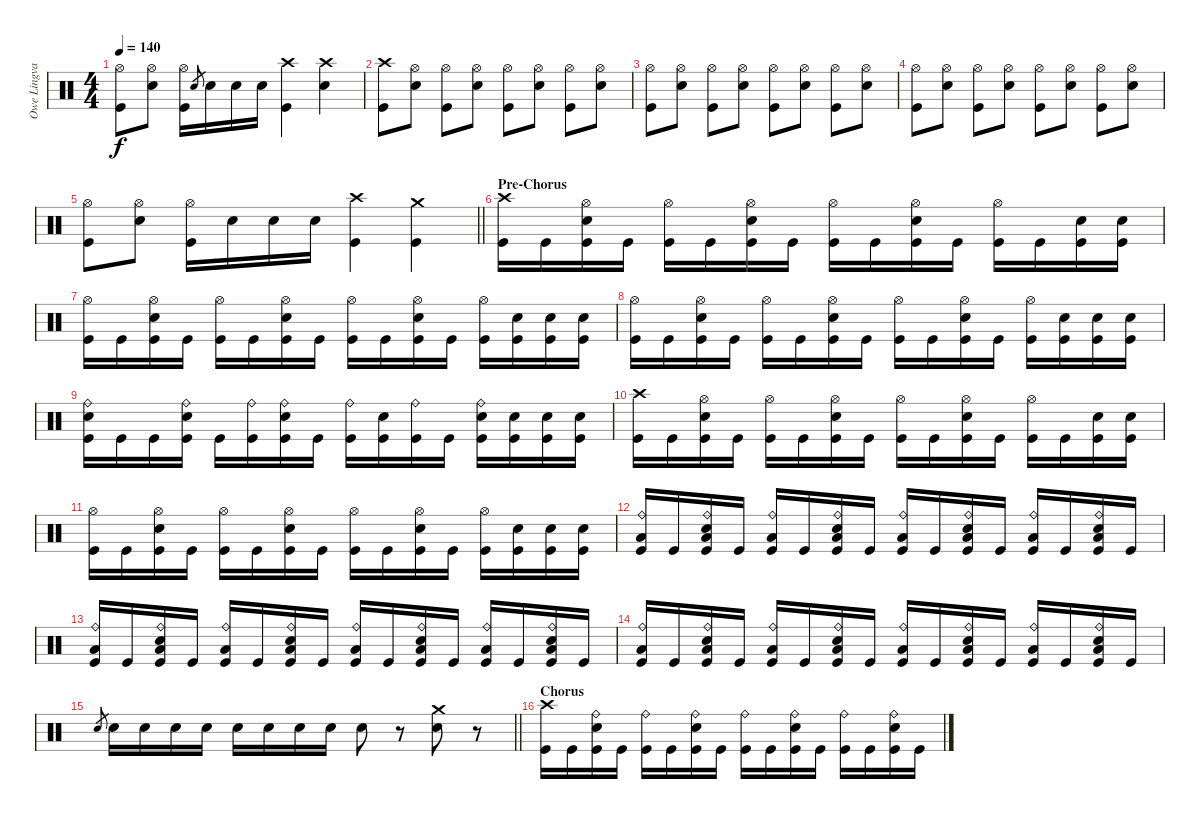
\track ("Owe Lingvall" "Owe Lingva") {instrument percussion}
\staff {score}
\articulation defaults
\ts (4 4)
\tempo 140
\clef neutral
\ks c
("Hi-Hat (open)" "Kick (hit)").8{dy f} ("Hi-Hat (open)" "Snare (hit) 2").8 ("Kick (hit)" "Hi-Hat (open)").16 "Snare (hit) 2".8{gr} "Snare (hit) 2".16 "Snare (hit) 2".16 "Snare (hit) 2".16 ("Crash high (hit)" "Kick (hit)").4 ("Crash high (hit)" "Snare (hit) 2").4 |
("Crash high (hit)" "Kick (hit)").8 ("Hi-Hat (open)" "Snare (hit) 2").8 ("Hi-Hat (open)" "Kick (hit)").8 ("Hi-Hat (open)" "Snare (hit) 2").8 ("Kick (hit)" "Hi-Hat (open)").8 ("Hi-Hat (open)" "Snare (hit) 2").8 ("Hi-Hat (open)" "Kick (hit)").8 ("Hi-Hat (open)" "Snare (hit) 2").8 |
("Hi-Hat (open)" "Kick (hit)").8 ("Hi-Hat (open)" "Snare (hit) 2").8 ("Hi-Hat (open)" "Kick (hit)").8 ("Hi-Hat (open)" "Snare (hit) 2").8 ("Kick (hit)" "Hi-Hat (open)").8 ("Hi-Hat (open)" "Snare (hit) 2").8 ("Hi-Hat (open)" "Kick (hit)").8 ("Hi-Hat (open)" "Snare (hit) 2").8 |
("Hi-Hat (open)" "Kick (hit)").8 ("Hi-Hat (open)" "Snare (hit) 2").8 ("Hi-Hat (open)" "Kick (hit)").8 ("Hi-Hat (open)" "Snare (hit) 2").8 ("Kick (hit)" "Hi-Hat (open)").8 ("Hi-Hat (open)" "Snare (hit) 2").8 ("Hi-Hat (open)" "Kick (hit)").8 ("Hi-Hat (open)" "Snare (hit) 2").8 |
\barLineRight lightlight
("Hi-Hat (open)" "Kick (hit)").8 ("Hi-Hat (open)" "Snare (hit) 2").8 ("Hi-Hat (open)" "Kick (hit)").16 "Snare (hit) 2".16 "Snare (hit) 2".16 "Snare (hit) 2".16 ("Crash high (hit)" "Kick (hit)").4 ("Crash medium (hit)" "Kick (hit)").4 |
\section ("" "Pre-Chorus")
("Kick (hit)" "Crash high (hit)").16 "Kick (hit)".16 ("Kick (hit)" "Hi-Hat (open)" "Snare (hit) 2").16 "Kick (hit)".16 ("Kick (hit)" "Hi-Hat (open)").16 "Kick (hit)".16 ("Kick (hit)" "Hi-Hat (open)" "Snare (hit) 2").16 "Kick (hit)".16 ("Kick (hit)" "Hi-Hat (open)").16 "Kick (hit)".16 ("Kick (hit)" "Hi-Hat (open)" "Snare (hit) 2").16 "Kick (hit)".16 ("Kick (hit)" "Hi-Hat (open)").16 "Kick (hit)".16 ("Kick (hit)" "Snare (hit) 2").16 ("Kick (hit)" "Snare (hit) 2").16 |
("Kick (hit)" "Hi-Hat (open)").16 "Kick (hit)".16 ("Kick (hit)" "Hi-Hat (open)" "Snare (hit) 2").16 "Kick (hit)".16 ("Kick (hit)" "Hi-Hat (open)").16 "Kick (hit)".16 ("Kick (hit)" "Hi-Hat (open)" "Snare (hit) 2").16 "Kick (hit)".16 ("Kick (hit)" "Hi-Hat (open)").16 "Kick (hit)".16 ("Kick (hit)" "Hi-Hat (open)" "Snare (hit) 2").16 "Kick (hit)".16 ("Kick (hit)" "Hi-Hat (open)").16 ("Kick (hit)" "Snare (hit) 2").16 ("Kick (hit)" "Snare (hit) 2").16 ("Kick (hit)" "Snare (hit) 2").16 |
("Kick (hit)" "Hi-Hat (open)").16 "Kick (hit)".16 ("Kick (hit)" "Hi-Hat (open)" "Snare (hit) 2").16 "Kick (hit)".16 ("Kick (hit)" "Hi-Hat (open)").16 "Kick (hit)".16 ("Kick (hit)" "Hi-Hat (open)" "Snare (hit) 2").16 "Kick (hit)".16 ("Kick (hit)" "Hi-Hat (open)").16 "Kick (hit)".16 ("Kick (hit)" "Hi-Hat (open)" "Snare (hit) 2").16 "Kick (hit)".16 ("Kick (hit)" "Hi-Hat (open)").16 ("Kick (hit)" "Snare (hit) 2").16 ("Kick (hit)" "Snare (hit) 2").16 ("Kick (hit)" "Snare (hit) 2").16 |
("Kick (hit)" "Snare (hit) 2" "Ride (bell)").16 "Kick (hit)".16 "Kick (hit)".16 ("Kick (hit)" "Snare (hit) 2" "Ride (bell)").16 "Kick (hit)".16 ("Kick (hit)" "Ride (bell)").16 ("Kick (hit)" "Snare (hit) 2" "Ride (bell)").16 "Kick (hit)".16 ("Kick (hit)" "Ride (bell)").16 ("Kick (hit)" "Snare (hit) 2").16 ("Kick (hit)" "Ride (bell)").16 "Kick (hit)".16 ("Kick (hit)" "Snare (hit) 2" "Ride (bell)").16 ("Kick (hit)" "Snare (hit) 2").16 ("Kick (hit)" "Snare (hit) 2").16 ("Kick (hit)" "Snare (hit) 2").16 |
("Kick (hit)" "Crash high (hit)").16 "Kick (hit)".16 ("Kick (hit)" "Hi-Hat (open)" "Snare (hit) 2").16 "Kick (hit)".16 ("Kick (hit)" "Hi-Hat (open)").16 "Kick (hit)".16 ("Kick (hit)" "Hi-Hat (open)" "Snare (hit) 2").16 "Kick (hit)".16 ("Kick (hit)" "Hi-Hat (open)").16 "Kick (hit)".16 ("Kick (hit)" "Hi-Hat (open)" "Snare (hit) 2").16 "Kick (hit)".16 ("Kick (hit)" "Hi-Hat (open)").16 "Kick (hit)".16 ("Kick (hit)" "Snare (hit) 2").16 ("Kick (hit)" "Snare (hit) 2").16 |
("Kick (hit)" "Hi-Hat (open)").16 "Kick (hit)".16 ("Kick (hit)" "Hi-Hat (open)" "Snare (hit) 2").16 "Kick (hit)".16 ("Kick (hit)" "Hi-Hat (open)").16 "Kick (hit)".16 ("Kick (hit)" "Hi-Hat (open)" "Snare (hit) 2").16 "Kick (hit)".16 ("Kick (hit)" "Hi-Hat (open)").16 "Kick (hit)".16 ("Kick (hit)" "Hi-Hat (open)" "Snare (hit) 2").16 "Kick (hit)".16 ("Kick (hit)" "Hi-Hat (open)").16 ("Kick (hit)" "Snare (hit) 2").16 ("Kick (hit)" "Snare (hit) 2").16 ("Kick (hit)" "Snare (hit) 2").16 |
("Kick (hit)" "Low Tom (hit)" "Ride (bell)").16 "Kick (hit)".16 ("Kick (hit)" "Low Tom (hit)" "Snare (hit) 2" "Ride (bell)").16 "Kick (hit)".16 ("Kick (hit)" "Low Tom (hit)" "Ride (bell)").16 "Kick (hit)".16 ("Kick (hit)" "Low Tom (hit)" "Snare (hit) 2" "Ride (bell)").16 "Kick (hit)".16 ("Kick (hit)" "Low Tom (hit)" "Ride (bell)").16 "Kick (hit)".16 ("Kick (hit)" "Low Tom (hit)" "Snare (hit) 2" "Ride (bell)").16 "Kick (hit)".16 ("Kick (hit)" "Low Tom (hit)" "Ride (bell)").16 "Kick (hit)".16 ("Kick (hit)" "Low Tom (hit)" "Snare (hit) 2" "Ride (bell)").16 "Kick (hit)".16 |
("Kick (hit)" "Low Tom (hit)" "Ride (bell)").16 "Kick (hit)".16 ("Kick (hit)" "Low Tom (hit)" "Snare (hit) 2" "Ride (bell)").16 "Kick (hit)".16 ("Kick (hit)" "Low Tom (hit)" "Ride (bell)").16 "Kick (hit)".16 ("Kick (hit)" "Low Tom (hit)" "Snare (hit) 2" "Ride (bell)").16 "Kick (hit)".16 ("Kick (hit)" "Low Tom (hit)" "Ride (bell)").16 "Kick (hit)".16 ("Kick (hit)" "Low Tom (hit)" "Snare (hit) 2" "Ride (bell)").16 "Kick (hit)".16 ("Kick (hit)" "Low Tom (hit)" "Ride (bell)").16 "Kick (hit)".16 ("Kick (hit)" "Low Tom (hit)" "Snare (hit) 2" "Ride (bell)").16 "Kick (hit)".16 |
("Kick (hit)" "Low Tom (hit)" "Ride (bell)").16 "Kick (hit)".16 ("Kick (hit)" "Low Tom (hit)" "Snare (hit) 2" "Ride (bell)").16 "Kick (hit)".16 ("Kick (hit)" "Low Tom (hit)" "Ride (bell)").16 "Kick (hit)".16 ("Kick (hit)" "Low Tom (hit)" "Snare (hit) 2" "Ride (bell)").16 "Kick (hit)".16 ("Kick (hit)" "Low Tom (hit)" "Ride (bell)").16 "Kick (hit)".16 ("Kick (hit)" "Low Tom (hit)" "Snare (hit) 2" "Ride (bell)").16 "Kick (hit)".16 ("Kick (hit)" "Low Tom (hit)" "Ride (bell)").16 "Kick (hit)".16 ("Kick (hit)" "Low Tom (hit)" "Snare (hit) 2" "Ride (bell)").16 "Kick (hit)".16 |
\barLineRight lightlight "Snare (hit) 2".8{gr} "Snare (hit) 2".16 "Snare (hit) 2".16 "Snare (hit) 2".16 "Snare (hit) 2".16 "Snare (hit) 2".16 "Snare (hit) 2".16 "Snare (hit) 2".16 "Snare (hit) 2".16 "Snare (hit) 2".8
r.8 ("Crash medium (hit)" "Snare (hit) 2").8 r.8 |
\section ("" "Chorus")
("Kick (hit)" "Crash high (hit)").16 "Kick (hit)".16 ("Kick (hit)" "Ride (bell)" "Snare (hit) 2").16 "Kick (hit)".16 ("Kick (hit)" "Ride (bell)").16 "Kick (hit)".16 ("Kick (hit)" "Ride (bell)" "Snare (hit) 2").16 "Kick (hit)".16 ("Kick (hit)" "Ride (bell)").16 "Kick (hit)".16 ("Kick (hit)" "Ride (bell)" "Snare (hit) 2").16 "Kick (hit)".16 ("Kick (hit)" "Ride (bell)").16 "Kick (hit)".16 ("Kick (hit)" "Ride (bell)" "Snare (hit) 2").16 "Kick (hit)".16
